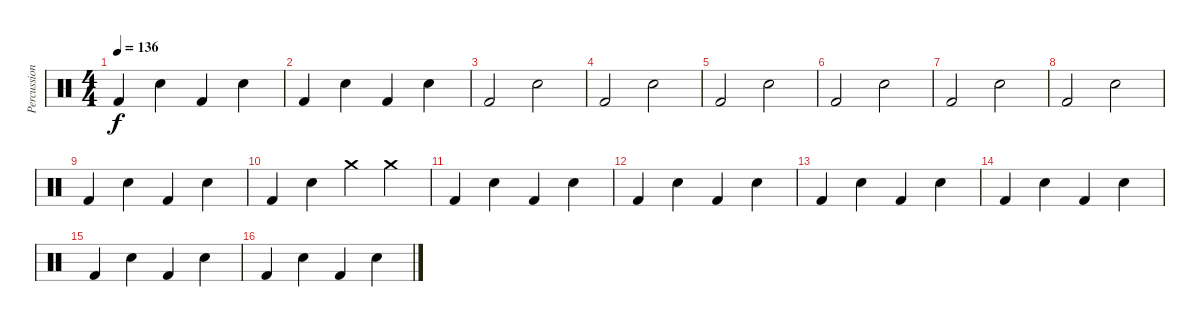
\track ("Percussion" "Percussion") {instrument percussion}
\staff {score}
\articulation defaults
\ts (4 4)
\tempo 136
\clef neutral
\ks c "Kick (hit) 2".4{dy f} "Snare (hit) 2".4 "Kick (hit) 2".4 "Snare (hit) 2".4
|
"Kick (hit) 2".4 "Snare (hit) 2".4 "Kick (hit) 2".4 "Snare (hit) 2".4 |
"Kick (hit) 2".2 "Snare (hit) 2".2 |
"Kick (hit) 2".2 "Snare (hit) 2".2 |
"Kick (hit) 2".2 "Snare (hit) 2".2 |
"Kick (hit) 2".2 "Snare (hit) 2".2 |
"Kick (hit) 2".2 "Snare (hit) 2".2 |
"Kick (hit) 2".2 "Snare (hit) 2".2 |
"Kick (hit) 2".4 "Snare (hit) 2".4 "Kick (hit) 2".4 "Snare (hit) 2".4 |
"Kick (hit) 2".4 "Snare (hit) 2".4 "Crash medium (hit)".4 "Crash medium (hit)".4 |
"Kick (hit) 2".4 "Snare (hit) 2".4 "Kick (hit) 2".4 "Snare (hit) 2".4 |
"Kick (hit) 2".4 "Snare (hit) 2".4 "Kick (hit) 2".4 "Snare (hit) 2".4 |
"Kick (hit) 2".4 "Snare (hit) 2".4 "Kick (hit) 2".4 "Snare (hit) 2".4 |
"Kick (hit) 2".4 "Snare (hit) 2".4 "Kick (hit) 2".4 "Snare (hit) 2".4 |
"Kick (hit) 2".4 "Snare (hit) 2".4 "Kick (hit) 2".4 "Snare (hit) 2".4 |
"Kick (hit) 2".4 "Snare (hit) 2".4 "Kick (hit) 2".4 "Snare (hit) 2".4
